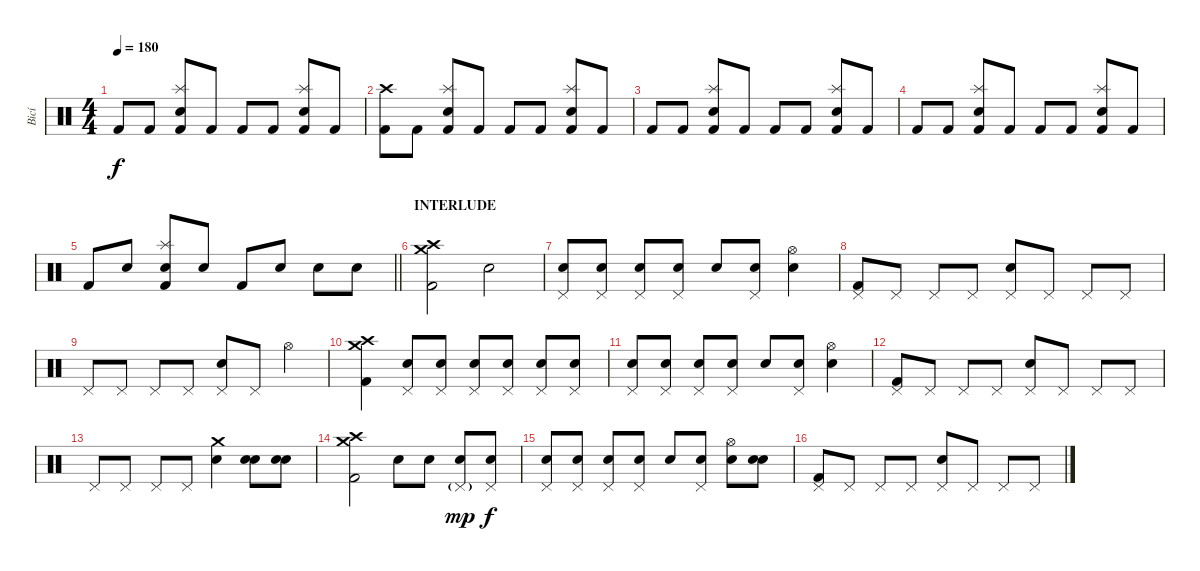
\track ("Bicí" "Bicí") {instrument percussion}
\staff {score}
\articulation defaults
\ts (4 4)
\tempo 180
\clef neutral
\ks c "Kick (hit) 2".8{dy f} "Kick (hit) 2".8
("Splash (hit)" "Electric Snare (hit)" "Kick (hit) 2").8 "Kick (hit) 2".8 "Kick (hit) 2".8 "Kick (hit) 2".8 ("Splash (hit)" "Electric Snare (hit)" "Kick (hit) 2").8 "Kick (hit) 2".8 |
("Crash high (hit)" "Kick (hit) 2").8 "Kick (hit) 2".8 ("Splash (hit)" "Electric Snare (hit)" "Kick (hit) 2").8 "Kick (hit) 2".8 "Kick (hit) 2".8 "Kick (hit) 2".8 ("Splash (hit)" "Electric Snare (hit)" "Kick (hit) 2").8 "Kick (hit) 2".8 |
"Kick (hit) 2".8 "Kick (hit) 2".8 ("Splash (hit)" "Electric Snare (hit)" "Kick (hit) 2").8 "Kick (hit) 2".8 "Kick (hit) 2".8 "Kick (hit) 2".8 ("Splash (hit)" "Electric Snare (hit)" "Kick (hit) 2").8 "Kick (hit) 2".8 |
"Kick (hit) 2".8 "Kick (hit) 2".8 ("Splash (hit)" "Electric Snare (hit)" "Kick (hit) 2").8 "Kick (hit) 2".8 "Kick (hit) 2".8 "Kick (hit) 2".8 ("Splash (hit)" "Electric Snare (hit)" "Kick (hit) 2").8 "Kick (hit) 2".8 |
\barLineRight lightlight "Kick (hit) 2".8 "Snare (hit)".8
("Splash (hit)" "Electric Snare (hit)" "Kick (hit) 2").8 "Snare (hit)".8 "Kick (hit) 2".8 "Electric Snare (hit)".8 "Electric Snare (hit)".8 "Electric Snare (hit)".8 |
\section ("" "INTERLUDE")
("Crash medium (hit)" "Crash high (hit)" "Kick (hit) 2").2 "Electric Snare (hit)".2 |
("Pedal Hi-Hat (hit)" "Snare (hit)").8 ("Pedal Hi-Hat (hit)" "Snare (hit)").8 ("Pedal Hi-Hat (hit)" "Snare (hit)").8 ("Pedal Hi-Hat (hit)" "Snare (hit)").8 "Electric Snare (hit)".8 ("Pedal Hi-Hat (hit)" "Snare (hit)").8 ("Hi-Hat (open)" "Snare (hit)").4 |
("Pedal Hi-Hat (hit)" "Kick (hit) 2").8 "Pedal Hi-Hat (hit)".8 "Pedal Hi-Hat (hit)".8 "Pedal Hi-Hat (hit)".8 ("Pedal Hi-Hat (hit)" "Electric Snare (hit)").8 "Pedal Hi-Hat (hit)".8 "Pedal Hi-Hat (hit)".8 "Pedal Hi-Hat (hit)".8 |
"Pedal Hi-Hat (hit)".8 "Pedal Hi-Hat (hit)".8 "Pedal Hi-Hat (hit)".8 "Pedal Hi-Hat (hit)".8 ("Pedal Hi-Hat (hit)" "Electric Snare (hit)").8 "Pedal Hi-Hat (hit)".8 "Hi-Hat (open)".4 |
("Crash medium (hit)" "Crash high (hit)" "Kick (hit) 2").4 ("Pedal Hi-Hat (hit)" "Snare (hit)").8 ("Pedal Hi-Hat (hit)" "Snare (hit)").8 ("Pedal Hi-Hat (hit)" "Electric Snare (hit)").8 ("Pedal Hi-Hat (hit)" "Snare (hit)").8 ("Pedal Hi-Hat (hit)" "Snare (hit)").8 ("Pedal Hi-Hat (hit)" "Snare (hit)").8 |
("Pedal Hi-Hat (hit)" "Snare (hit)").8 ("Pedal Hi-Hat (hit)" "Snare (hit)").8 ("Pedal Hi-Hat (hit)" "Snare (hit)").8 ("Pedal Hi-Hat (hit)" "Snare (hit)").8 "Electric Snare (hit)".8 ("Pedal Hi-Hat (hit)" "Snare (hit)").8 ("Hi-Hat (open)" "Snare (hit)").4 |
("Pedal Hi-Hat (hit)" "Kick (hit) 2").8 "Pedal Hi-Hat (hit)".8 "Pedal Hi-Hat (hit)".8 "Pedal Hi-Hat (hit)".8 ("Pedal Hi-Hat (hit)" "Electric Snare (hit)").8 "Pedal Hi-Hat (hit)".8 "Pedal Hi-Hat (hit)".8 "Pedal Hi-Hat (hit)".8 |
"Pedal Hi-Hat (hit)".8 "Pedal Hi-Hat (hit)".8 "Pedal Hi-Hat (hit)".8 "Pedal Hi-Hat (hit)".8 ("Crash medium (hit)" "Electric Snare (hit)").4 ("Snare (hit)" "Electric Snare (hit)").8 ("Snare (hit)" "Electric Snare (hit)").8 |
("Crash medium (hit)" "Crash high (hit)" "Kick (hit) 2").2 "Electric Snare (hit)".8 "Snare (hit)".8 ("Pedal Hi-Hat (hit)"{g} "Snare (hit)").8{dy mp} ("Pedal Hi-Hat (hit)" "Snare (hit)").8{dy f} |
("Pedal Hi-Hat (hit)" "Snare (hit)").8 ("Pedal Hi-Hat (hit)" "Snare (hit)").8 ("Pedal Hi-Hat (hit)" "Snare (hit)").8 ("Pedal Hi-Hat (hit)" "Snare (hit)").8 "Electric Snare (hit)".8 ("Pedal Hi-Hat (hit)" "Snare (hit)").8 ("Hi-Hat (open)" "Snare (hit)").8 ("Snare (hit)" "Snare (hit)").8 |
("Pedal Hi-Hat (hit)" "Kick (hit) 2").8 "Pedal Hi-Hat (hit)".8 "Pedal Hi-Hat (hit)".8 "Pedal Hi-Hat (hit)".8 ("Pedal Hi-Hat (hit)" "Electric Snare (hit)").8 "Pedal Hi-Hat (hit)".8 "Pedal Hi-Hat (hit)".8 "Pedal Hi-Hat (hit)".8
